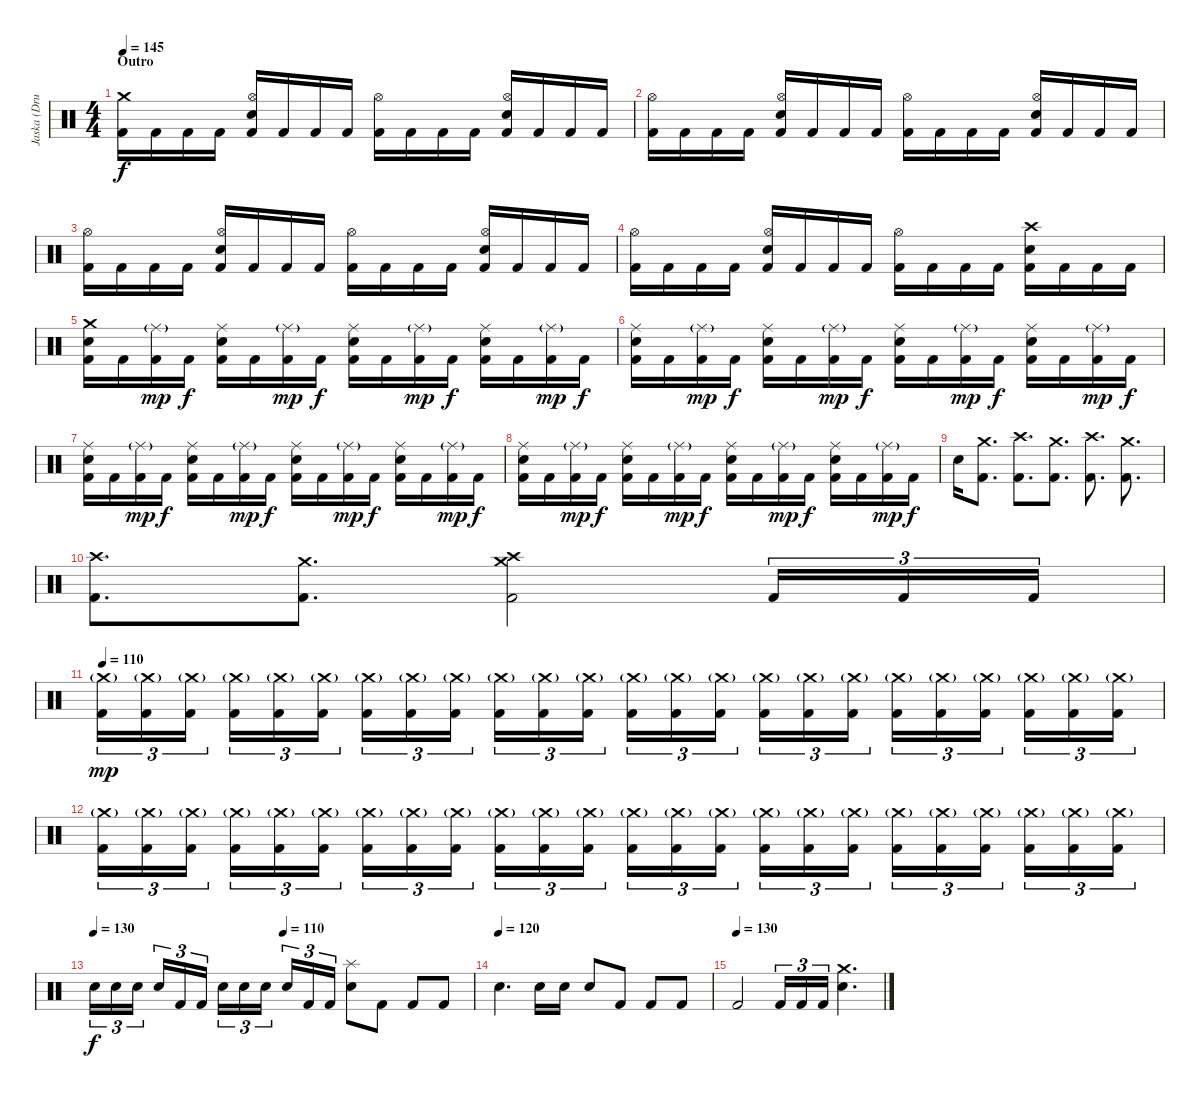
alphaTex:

\track ("Jaska (Drums)" "Jaska (Dru") {instrument percussion}
\staff {score}
\articulation defaults
\ts (4 4)
\section ("" "Outro")
\tempo 145
\clef neutral
\ks c
("Crash medium (hit)" "Kick (hit) 2").16{dy f} "Kick (hit) 2".16 "Kick (hit) 2".16 "Kick (hit) 2".16 ("Hi-Hat (open)" "Electric Snare (hit)" "Kick (hit) 2").16 "Kick (hit) 2".16 "Kick (hit) 2".16 "Kick (hit) 2".16 ("Hi-Hat (open)" "Kick (hit) 2").16 "Kick (hit) 2".16 "Kick (hit) 2".16 "Kick (hit) 2".16 ("Hi-Hat (open)" "Electric Snare (hit)" "Kick (hit) 2").16 "Kick (hit) 2".16 "Kick (hit) 2".16 "Kick (hit) 2".16 |
("Hi-Hat (open)" "Kick (hit) 2").16 "Kick (hit) 2".16 "Kick (hit) 2".16 "Kick (hit) 2".16 ("Hi-Hat (open)" "Electric Snare (hit)" "Kick (hit) 2").16 "Kick (hit) 2".16 "Kick (hit) 2".16 "Kick (hit) 2".16 ("Hi-Hat (open)" "Kick (hit) 2").16 "Kick (hit) 2".16 "Kick (hit) 2".16 "Kick (hit) 2".16 ("Hi-Hat (open)" "Electric Snare (hit)" "Kick (hit) 2").16 "Kick (hit) 2".16 "Kick (hit) 2".16 "Kick (hit) 2".16 |
("Hi-Hat (open)" "Kick (hit) 2").16 "Kick (hit) 2".16 "Kick (hit) 2".16 "Kick (hit) 2".16 ("Hi-Hat (open)" "Electric Snare (hit)" "Kick (hit) 2").16 "Kick (hit) 2".16 "Kick (hit) 2".16 "Kick (hit) 2".16 ("Hi-Hat (open)" "Kick (hit) 2").16 "Kick (hit) 2".16 "Kick (hit) 2".16 "Kick (hit) 2".16 ("Hi-Hat (open)" "Electric Snare (hit)" "Kick (hit) 2").16 "Kick (hit) 2".16 "Kick (hit) 2".16 "Kick (hit) 2".16 |
("Hi-Hat (open)" "Kick (hit) 2").16 "Kick (hit) 2".16 "Kick (hit) 2".16 "Kick (hit) 2".16 ("Hi-Hat (open)" "Electric Snare (hit)" "Kick (hit) 2").16 "Kick (hit) 2".16 "Kick (hit) 2".16 "Kick (hit) 2".16 ("Hi-Hat (open)" "Kick (hit) 2").16 "Kick (hit) 2".16 "Kick (hit) 2".16 "Kick (hit) 2".16 ("Crash high (hit)" "Electric Snare (hit)" "Kick (hit) 2").16 "Kick (hit) 2".16 "Kick (hit) 2".16 "Kick (hit) 2".16 |
("Crash medium (hit)" "Electric Snare (hit)" "Kick (hit) 2").16 "Kick (hit) 2".16 ("Ride (middle)"{g} "Kick (hit) 2").16{dy mp} "Kick (hit) 2".16{dy f} ("Ride (middle)" "Electric Snare (hit)" "Kick (hit) 2").16 "Kick (hit) 2".16 ("Ride (middle)"{g} "Kick (hit) 2").16{dy mp} "Kick (hit) 2".16{dy f} ("Ride (middle)" "Electric Snare (hit)" "Kick (hit) 2").16 "Kick (hit) 2".16 ("Ride (middle)"{g} "Kick (hit) 2").16{dy mp} "Kick (hit) 2".16{dy f} ("Ride (middle)" "Electric Snare (hit)" "Kick (hit) 2").16 "Kick (hit) 2".16 ("Ride (middle)"{g} "Kick (hit) 2").16{dy mp} "Kick (hit) 2".16{dy f} |
("Ride (middle)" "Electric Snare (hit)" "Kick (hit) 2").16 "Kick (hit) 2".16 ("Ride (middle)"{g} "Kick (hit) 2").16{dy mp} "Kick (hit) 2".16{dy f} ("Ride (middle)" "Electric Snare (hit)" "Kick (hit) 2").16 "Kick (hit) 2".16 ("Ride (middle)"{g} "Kick (hit) 2").16{dy mp} "Kick (hit) 2".16{dy f} ("Ride (middle)" "Electric Snare (hit)" "Kick (hit) 2").16 "Kick (hit) 2".16 ("Ride (middle)"{g} "Kick (hit) 2").16{dy mp} "Kick (hit) 2".16{dy f} ("Ride (middle)" "Electric Snare (hit)" "Kick (hit) 2").16 "Kick (hit) 2".16 ("Ride (middle)"{g} "Kick (hit) 2").16{dy mp} "Kick (hit) 2".16{dy f} |
("Ride (middle)" "Electric Snare (hit)" "Kick (hit) 2").16 "Kick (hit) 2".16 ("Ride (middle)"{g} "Kick (hit) 2").16{dy mp} "Kick (hit) 2".16{dy f} ("Ride (middle)" "Electric Snare (hit)" "Kick (hit) 2").16 "Kick (hit) 2".16 ("Ride (middle)"{g} "Kick (hit) 2").16{dy mp} "Kick (hit) 2".16{dy f} ("Ride (middle)" "Electric Snare (hit)" "Kick (hit) 2").16 "Kick (hit) 2".16 ("Ride (middle)"{g} "Kick (hit) 2").16{dy mp} "Kick (hit) 2".16{dy f} ("Ride (middle)" "Electric Snare (hit)" "Kick (hit) 2").16 "Kick (hit) 2".16 ("Ride (middle)"{g} "Kick (hit) 2").16{dy mp} "Kick (hit) 2".16{dy f} |
("Ride (middle)" "Electric Snare (hit)" "Kick (hit) 2").16 "Kick (hit) 2".16 ("Ride (middle)"{g} "Kick (hit) 2").16{dy mp} "Kick (hit) 2".16{dy f} ("Ride (middle)" "Electric Snare (hit)" "Kick (hit) 2").16 "Kick (hit) 2".16 ("Ride (middle)"{g} "Kick (hit) 2").16{dy mp} "Kick (hit) 2".16{dy f} ("Ride (middle)" "Electric Snare (hit)" "Kick (hit) 2").16 "Kick (hit) 2".16 ("Ride (middle)"{g} "Kick (hit) 2").16{dy mp} "Kick (hit) 2".16{dy f} ("Ride (middle)" "Electric Snare (hit)" "Kick (hit) 2").16 "Kick (hit) 2".16 ("Ride (middle)"{g} "Kick (hit) 2").16{dy mp} "Kick (hit) 2".16{dy f} |
"Electric Snare (hit)".16{volume 16 balance 8} ("Crash medium (hit)" "Kick (hit) 2").8{d} ("Crash high (hit)" "Kick (hit) 2").8{d} ("Crash medium (hit)" "Kick (hit) 2").8{d} ("Crash high (hit)" "Kick (hit) 2").8{d} ("Crash medium (hit)" "Kick (hit) 2").8{d} |
("Crash high (hit)" "Kick (hit) 2").8{d} ("Crash medium (hit)" "Kick (hit) 2").8{d} ("Crash medium (hit)" "Crash high (hit)" "Kick (hit) 2").2 "Kick (hit) 2".16{tu (3 2)} "Kick (hit) 2".16{tu (3 2)} "Kick (hit) 2".16{tu (3 2)} |
\tempo 110
("Crash medium (hit)"{g} "Kick (hit) 2").16{tu (3 2) dy mp} ("Crash medium (hit)"{g} "Kick (hit) 2").16{tu (3 2)} ("Crash medium (hit)"{g} "Kick (hit) 2").16{tu (3 2) beam splitsecondary} ("Crash medium (hit)"{g} "Kick (hit) 2").16{tu (3 2)} ("Crash medium (hit)"{g} "Kick (hit) 2").16{tu (3 2)} ("Crash medium (hit)"{g} "Kick (hit) 2").16{tu (3 2)} ("Crash medium (hit)"{g} "Kick (hit) 2").16{tu (3 2)} ("Crash medium (hit)"{g} "Kick (hit) 2").16{tu (3 2)} ("Crash medium (hit)"{g} "Kick (hit) 2").16{tu (3 2) beam splitsecondary} ("Crash medium (hit)"{g} "Kick (hit) 2").16{tu (3 2)} ("Crash medium (hit)"{g} "Kick (hit) 2").16{tu (3 2)} ("Crash medium (hit)"{g} "Kick (hit) 2").16{tu (3 2)} ("Crash medium (hit)"{g} "Kick (hit) 2").16{tu (3 2)} ("Crash medium (hit)"{g} "Kick (hit) 2").16{tu (3 2)} ("Crash medium (hit)"{g} "Kick (hit) 2").16{tu (3 2) beam splitsecondary} ("Crash medium (hit)"{g} "Kick (hit) 2").16{tu (3 2)} ("Crash medium (hit)"{g} "Kick (hit) 2").16{tu (3 2)} ("Crash medium (hit)"{g} "Kick (hit) 2").16{tu (3 2)} ("Crash medium (hit)"{g} "Kick (hit) 2").16{tu (3 2)} ("Crash medium (hit)"{g} "Kick (hit) 2").16{tu (3 2)} ("Crash medium (hit)"{g} "Kick (hit) 2").16{tu (3 2) beam splitsecondary} ("Crash medium (hit)"{g} "Kick (hit) 2").16{tu (3 2)} ("Crash medium (hit)"{g} "Kick (hit) 2").16{tu (3 2)} ("Crash medium (hit)"{g} "Kick (hit) 2").16{tu (3 2)} |
("Crash medium (hit)"{g} "Kick (hit) 2").16{tu (3 2)} ("Crash medium (hit)"{g} "Kick (hit) 2").16{tu (3 2)} ("Crash medium (hit)"{g} "Kick (hit) 2").16{tu (3 2) beam splitsecondary} ("Crash medium (hit)"{g} "Kick (hit) 2").16{tu (3 2)} ("Crash medium (hit)"{g} "Kick (hit) 2").16{tu (3 2)} ("Crash medium (hit)"{g} "Kick (hit) 2").16{tu (3 2)} ("Crash medium (hit)"{g} "Kick (hit) 2").16{tu (3 2)} ("Crash medium (hit)"{g} "Kick (hit) 2").16{tu (3 2)} ("Crash medium (hit)"{g} "Kick (hit) 2").16{tu (3 2) beam splitsecondary} ("Crash medium (hit)"{g} "Kick (hit) 2").16{tu (3 2)} ("Crash medium (hit)"{g} "Kick (hit) 2").16{tu (3 2)} ("Crash medium (hit)"{g} "Kick (hit) 2").16{tu (3 2)} ("Crash medium (hit)"{g} "Kick (hit) 2").16{tu (3 2)} ("Crash medium (hit)"{g} "Kick (hit) 2").16{tu (3 2)} ("Crash medium (hit)"{g} "Kick (hit) 2").16{tu (3 2) beam splitsecondary} ("Crash medium (hit)"{g} "Kick (hit) 2").16{tu (3 2)} ("Crash medium (hit)"{g} "Kick (hit) 2").16{tu (3 2)} ("Crash medium (hit)"{g} "Kick (hit) 2").16{tu (3 2)} ("Crash medium (hit)"{g} "Kick (hit) 2").16{tu (3 2)} ("Crash medium (hit)"{g} "Kick (hit) 2").16{tu (3 2)} ("Crash medium (hit)"{g} "Kick (hit) 2").16{tu (3 2) beam splitsecondary} ("Crash medium (hit)"{g} "Kick (hit) 2").16{tu (3 2)} ("Crash medium (hit)"{g} "Kick (hit) 2").16{tu (3 2)} ("Crash medium (hit)"{g} "Kick (hit) 2").16{tu (3 2)} |
\tempo 130
\tempo (110 0.5)
"Electric Snare (hit)".16{tu (3 2) dy f} "Electric Snare (hit)".16{tu (3 2)} "Electric Snare (hit)".16{tu (3 2) beam splitsecondary} "Electric Snare (hit)".16{tu (3 2)} "Kick (hit) 2".16{tu (3 2)} "Kick (hit) 2".16{tu (3 2)} "Electric Snare (hit)".16{tu (3 2)} "Electric Snare (hit)".16{tu (3 2)} "Electric Snare (hit)".16{tu (3 2) beam splitsecondary} "Electric Snare (hit)".16{tu (3 2)} "Kick (hit) 2".16{tu (3 2)} "Kick (hit) 2".16{tu (3 2)} ("Splash (hit)" "Electric Snare (hit)").8 "Kick (hit) 2".8 "Kick (hit) 2".8 "Kick (hit) 2".8 |
\tempo (120)
"Electric Snare (hit)".4{d} "Electric Snare (hit)".16 "Electric Snare (hit)".16 "Electric Snare (hit)".8 "Kick (hit) 2".8 "Kick (hit) 2".8 "Kick (hit) 2".8 |
\tempo (130)
"Kick (hit) 2".2 "Kick (hit) 2".16{tu (3 2)} "Kick (hit) 2".16{tu (3 2)} "Kick (hit) 2".16{tu (3 2)} ("Crash medium (hit)" "Electric Snare (hit)").4{d}
